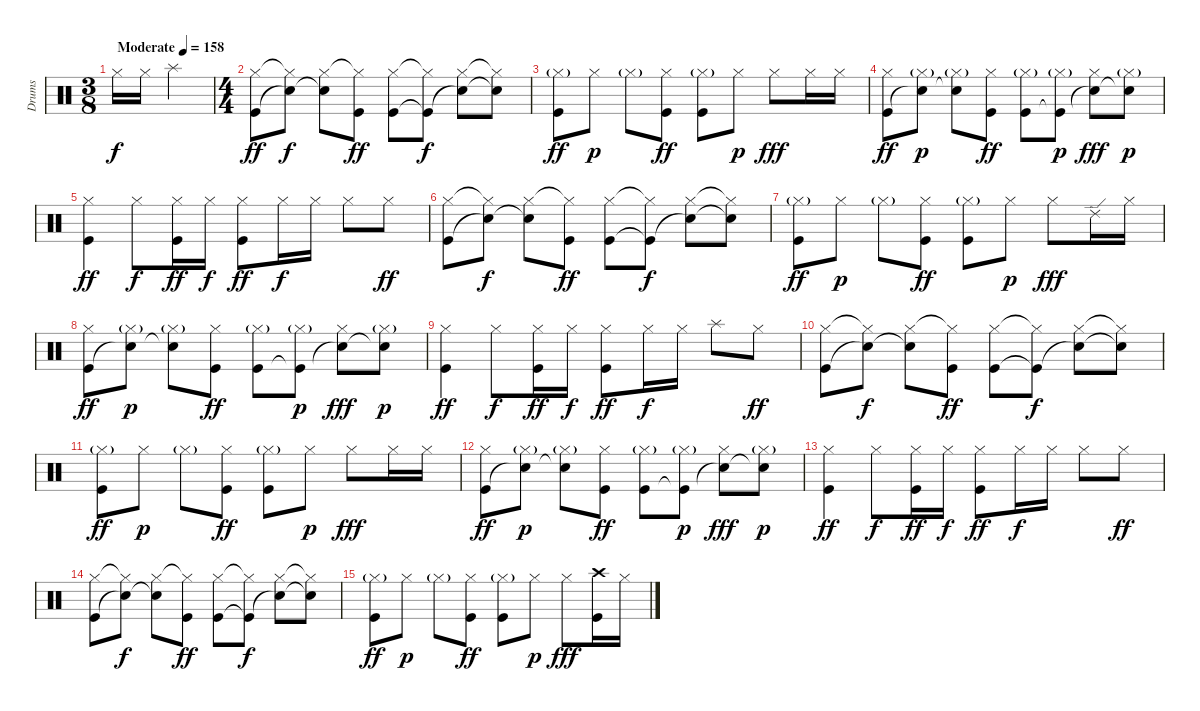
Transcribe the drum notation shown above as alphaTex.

\track ("Drums" "Drums") {instrument percussion}
\staff {score}
\articulation defaults
\ts (3 8)
\tempo (158 "Moderate")
\clef neutral
\ks c "Hi-Hat (closed)".16{dy f} "Hi-Hat (closed)".16 "Splash (hit)".4
|
\ts (4 4)
("Hi-Hat (closed)" "Kick (hit)").8{dy ff} ("Hi-Hat (closed)"{t} "Snare (hit)"{t}).8{dy f} ("Hi-Hat (closed)" "Snare (hit)"{t}).8 ("Hi-Hat (closed)"{t} "Kick (hit)").8{dy ff} ("Hi-Hat (closed)" "Kick (hit)").8 ("Hi-Hat (closed)"{t} "Kick (hit)"{t}).8{dy f} ("Hi-Hat (closed)" "Snare (hit)"{t}).8 ("Hi-Hat (closed)"{t} "Snare (hit)"{t}).8 |
("Hi-Hat (closed)"{g} "Kick (hit)").8{dy ff} "Hi-Hat (closed)".8{dy p} "Hi-Hat (closed)"{g}.8 ("Hi-Hat (closed)" "Kick (hit)").8{dy ff} ("Hi-Hat (closed)"{g} "Kick (hit)").8 "Hi-Hat (closed)".8{dy p} "Hi-Hat (closed)".8{dy fff} "Hi-Hat (closed)".16 "Hi-Hat (closed)".16 |
("Hi-Hat (closed)" "Kick (hit)").8{dy ff} ("Hi-Hat (closed)"{g} "Snare (hit)"{t}).8{dy p} ("Hi-Hat (closed)"{g} "Snare (hit)"{t}).8 ("Hi-Hat (closed)" "Kick (hit)").8{dy ff} ("Hi-Hat (closed)"{g} "Kick (hit)").8 ("Hi-Hat (closed)"{g} "Kick (hit)"{t}).8{dy p} ("Hi-Hat (closed)" "Snare (hit)"{t}).8{dy fff} ("Hi-Hat (closed)"{g} "Snare (hit)"{t}).8{dy p} |
("Hi-Hat (closed)" "Kick (hit)").4{dy ff} "Hi-Hat (closed)".8{dy f} ("Hi-Hat (closed)" "Kick (hit)").16{dy ff} "Hi-Hat (closed)".16{dy f} ("Hi-Hat (closed)" "Kick (hit)").8{dy ff} "Hi-Hat (closed)".16{dy f} "Hi-Hat (closed)".16 "Hi-Hat (closed)".8 "Hi-Hat (closed)".8{dy ff} |
("Hi-Hat (closed)" "Kick (hit)").8 ("Hi-Hat (closed)"{t} "Snare (hit)"{t}).8{dy f} ("Hi-Hat (closed)" "Snare (hit)"{t}).8 ("Hi-Hat (closed)"{t} "Kick (hit)").8{dy ff} ("Hi-Hat (closed)" "Kick (hit)").8 ("Hi-Hat (closed)"{t} "Kick (hit)"{t}).8{dy f} ("Hi-Hat (closed)" "Snare (hit)"{t}).8 ("Hi-Hat (closed)"{t} "Snare (hit)"{t}).8 |
("Hi-Hat (closed)"{g} "Kick (hit)").8{dy ff} "Hi-Hat (closed)".8{dy p} "Hi-Hat (closed)"{g}.8 ("Hi-Hat (closed)" "Kick (hit)").8{dy ff} ("Hi-Hat (closed)"{g} "Kick (hit)").8 "Hi-Hat (closed)".8{dy p} "Hi-Hat (closed)".8{dy fff} "Ride (edge) 2".16 "Hi-Hat (closed)".16 |
("Hi-Hat (closed)" "Kick (hit)").8{dy ff} ("Hi-Hat (closed)"{g} "Snare (hit)"{t}).8{dy p} ("Hi-Hat (closed)"{g} "Snare (hit)"{t}).8 ("Hi-Hat (closed)" "Kick (hit)").8{dy ff} ("Hi-Hat (closed)"{g} "Kick (hit)").8 ("Hi-Hat (closed)"{g} "Kick (hit)"{t}).8{dy p} ("Hi-Hat (closed)" "Snare (hit)"{t}).8{dy fff} ("Hi-Hat (closed)"{g} "Snare (hit)"{t}).8{dy p} |
("Hi-Hat (closed)" "Kick (hit)").4{dy ff} "Hi-Hat (closed)".8{dy f} ("Hi-Hat (closed)" "Kick (hit)").16{dy ff} "Hi-Hat (closed)".16{dy f} ("Hi-Hat (closed)" "Kick (hit)").8{dy ff} "Hi-Hat (closed)".16{dy f} "Hi-Hat (closed)".16 "Splash (hit)".8 "Hi-Hat (closed)".8{dy ff} |
("Hi-Hat (closed)" "Kick (hit)").8 ("Hi-Hat (closed)"{t} "Snare (hit)"{t}).8{dy f} ("Hi-Hat (closed)" "Snare (hit)"{t}).8 ("Hi-Hat (closed)"{t} "Kick (hit)").8{dy ff} ("Hi-Hat (closed)" "Kick (hit)").8 ("Hi-Hat (closed)"{t} "Kick (hit)"{t}).8{dy f} ("Hi-Hat (closed)" "Snare (hit)"{t}).8 ("Hi-Hat (closed)"{t} "Snare (hit)"{t}).8 |
("Hi-Hat (closed)"{g} "Kick (hit)").8{dy ff} "Hi-Hat (closed)".8{dy p} "Hi-Hat (closed)"{g}.8 ("Hi-Hat (closed)" "Kick (hit)").8{dy ff} ("Hi-Hat (closed)"{g} "Kick (hit)").8 "Hi-Hat (closed)".8{dy p} "Hi-Hat (closed)".8{dy fff} "Hi-Hat (closed)".16 "Hi-Hat (closed)".16 |
("Hi-Hat (closed)" "Kick (hit)").8{dy ff} ("Hi-Hat (closed)"{g} "Snare (hit)"{t}).8{dy p} ("Hi-Hat (closed)"{g} "Snare (hit)"{t}).8 ("Hi-Hat (closed)" "Kick (hit)").8{dy ff} ("Hi-Hat (closed)"{g} "Kick (hit)").8 ("Hi-Hat (closed)"{g} "Kick (hit)"{t}).8{dy p} ("Hi-Hat (closed)" "Snare (hit)"{t}).8{dy fff} ("Hi-Hat (closed)"{g} "Snare (hit)"{t}).8{dy p} |
("Hi-Hat (closed)" "Kick (hit)").4{dy ff} "Hi-Hat (closed)".8{dy f} ("Hi-Hat (closed)" "Kick (hit)").16{dy ff} "Hi-Hat (closed)".16{dy f} ("Hi-Hat (closed)" "Kick (hit)").8{dy ff} "Hi-Hat (closed)".16{dy f} "Hi-Hat (closed)".16 "Hi-Hat (closed)".8 "Hi-Hat (closed)".8{dy ff} |
("Hi-Hat (closed)" "Kick (hit)").8 ("Hi-Hat (closed)"{t} "Snare (hit)"{t}).8{dy f} ("Hi-Hat (closed)" "Snare (hit)"{t}).8 ("Hi-Hat (closed)"{t} "Kick (hit)").8{dy ff} ("Hi-Hat (closed)" "Kick (hit)").8 ("Hi-Hat (closed)"{t} "Kick (hit)"{t}).8{dy f} ("Hi-Hat (closed)" "Snare (hit)"{t}).8 ("Hi-Hat (closed)"{t} "Snare (hit)"{t}).8 |
("Hi-Hat (closed)"{g} "Kick (hit)").8{dy ff} "Hi-Hat (closed)".8{dy p} "Hi-Hat (closed)"{g}.8 ("Hi-Hat (closed)" "Kick (hit)").8{dy ff} ("Hi-Hat (closed)"{g} "Kick (hit)").8 "Hi-Hat (closed)".8{dy p} "Hi-Hat (closed)".8{dy fff} ("Crash high (hit)" "Kick (hit)").16 "Hi-Hat (closed)".16
